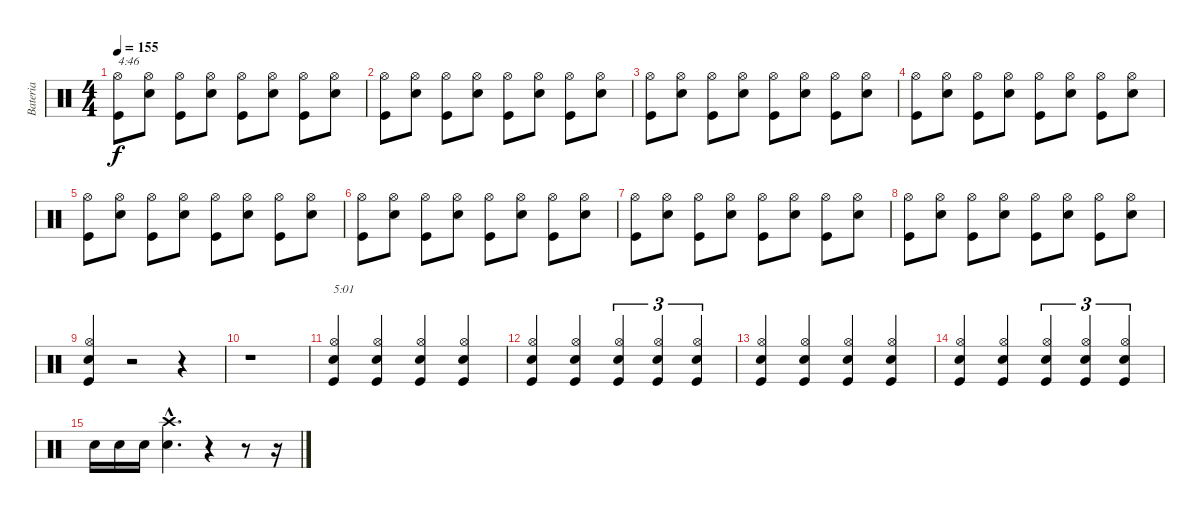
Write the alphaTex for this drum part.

\track ("Bateria" "Bateria") {instrument percussion}
\staff {score}
\articulation defaults
\ts (4 4)
\tempo 155
\clef neutral
\ks c
("Kick (hit)" "Hi-Hat (open)").8{txt "4:46" dy f} ("Snare (hit) 2" "Hi-Hat (open)").8 ("Kick (hit)" "Hi-Hat (open)").8 ("Snare (hit) 2" "Hi-Hat (open)").8 ("Kick (hit)" "Hi-Hat (open)").8 ("Snare (hit) 2" "Hi-Hat (open)").8 ("Kick (hit)" "Hi-Hat (open)").8 ("Snare (hit) 2" "Hi-Hat (open)").8 |
("Kick (hit)" "Hi-Hat (open)").8 ("Snare (hit) 2" "Hi-Hat (open)").8 ("Kick (hit)" "Hi-Hat (open)").8 ("Snare (hit) 2" "Hi-Hat (open)").8 ("Kick (hit)" "Hi-Hat (open)").8 ("Snare (hit) 2" "Hi-Hat (open)").8 ("Kick (hit)" "Hi-Hat (open)").8 ("Snare (hit) 2" "Hi-Hat (open)").8 |
("Kick (hit)" "Hi-Hat (open)").8 ("Snare (hit) 2" "Hi-Hat (open)").8 ("Kick (hit)" "Hi-Hat (open)").8 ("Snare (hit) 2" "Hi-Hat (open)").8 ("Kick (hit)" "Hi-Hat (open)").8 ("Snare (hit) 2" "Hi-Hat (open)").8 ("Kick (hit)" "Hi-Hat (open)").8 ("Snare (hit) 2" "Hi-Hat (open)").8 |
("Kick (hit)" "Hi-Hat (open)").8 ("Snare (hit) 2" "Hi-Hat (open)").8 ("Kick (hit)" "Hi-Hat (open)").8 ("Snare (hit) 2" "Hi-Hat (open)").8 ("Kick (hit)" "Hi-Hat (open)").8 ("Snare (hit) 2" "Hi-Hat (open)").8 ("Kick (hit)" "Hi-Hat (open)").8 ("Snare (hit) 2" "Hi-Hat (open)").8 |
("Kick (hit)" "Hi-Hat (open)").8 ("Snare (hit) 2" "Hi-Hat (open)").8 ("Kick (hit)" "Hi-Hat (open)").8 ("Snare (hit) 2" "Hi-Hat (open)").8 ("Kick (hit)" "Hi-Hat (open)").8 ("Snare (hit) 2" "Hi-Hat (open)").8 ("Kick (hit)" "Hi-Hat (open)").8 ("Snare (hit) 2" "Hi-Hat (open)").8 |
("Kick (hit)" "Hi-Hat (open)").8 ("Snare (hit) 2" "Hi-Hat (open)").8 ("Kick (hit)" "Hi-Hat (open)").8 ("Snare (hit) 2" "Hi-Hat (open)").8 ("Kick (hit)" "Hi-Hat (open)").8 ("Snare (hit) 2" "Hi-Hat (open)").8 ("Kick (hit)" "Hi-Hat (open)").8 ("Snare (hit) 2" "Hi-Hat (open)").8 |
("Kick (hit)" "Hi-Hat (open)").8 ("Snare (hit) 2" "Hi-Hat (open)").8 ("Kick (hit)" "Hi-Hat (open)").8 ("Snare (hit) 2" "Hi-Hat (open)").8 ("Kick (hit)" "Hi-Hat (open)").8 ("Snare (hit) 2" "Hi-Hat (open)").8 ("Kick (hit)" "Hi-Hat (open)").8 ("Snare (hit) 2" "Hi-Hat (open)").8 |
("Kick (hit)" "Hi-Hat (open)").8 ("Snare (hit) 2" "Hi-Hat (open)").8 ("Kick (hit)" "Hi-Hat (open)").8 ("Snare (hit) 2" "Hi-Hat (open)").8 ("Kick (hit)" "Hi-Hat (open)").8 ("Snare (hit) 2" "Hi-Hat (open)").8 ("Kick (hit)" "Hi-Hat (open)").8 ("Snare (hit) 2" "Hi-Hat (open)").8 |
("Kick (hit)" "Snare (hit) 2" "Hi-Hat (open)").4 r.2 r.4 |
r.1 |
("Kick (hit)" "Snare (hit) 2" "Hi-Hat (open)").4{txt "5:01"} ("Kick (hit)" "Snare (hit) 2" "Hi-Hat (open)").4 ("Kick (hit)" "Snare (hit) 2" "Hi-Hat (open)").4 ("Kick (hit)" "Snare (hit) 2" "Hi-Hat (open)").4 |
("Kick (hit)" "Snare (hit) 2" "Hi-Hat (open)").4 ("Kick (hit)" "Snare (hit) 2" "Hi-Hat (open)").4 ("Kick (hit)" "Snare (hit) 2" "Hi-Hat (open)").4{tu (3 2)} ("Kick (hit)" "Snare (hit) 2" "Hi-Hat (open)").4{tu (3 2)} ("Kick (hit)" "Snare (hit) 2" "Hi-Hat (open)").4{tu (3 2)} |
("Kick (hit)" "Snare (hit) 2" "Hi-Hat (open)").4 ("Kick (hit)" "Snare (hit) 2" "Hi-Hat (open)").4 ("Kick (hit)" "Snare (hit) 2" "Hi-Hat (open)").4 ("Kick (hit)" "Snare (hit) 2" "Hi-Hat (open)").4 |
("Kick (hit)" "Snare (hit) 2" "Hi-Hat (open)").4 ("Kick (hit)" "Snare (hit) 2" "Hi-Hat (open)").4 ("Kick (hit)" "Snare (hit) 2" "Hi-Hat (open)").4{tu (3 2)} ("Kick (hit)" "Snare (hit) 2" "Hi-Hat (open)").4{tu (3 2)} ("Kick (hit)" "Snare (hit) 2" "Hi-Hat (open)").4{tu (3 2)} |
"Snare (hit) 2".16 "Snare (hit) 2".16 "Snare (hit) 2".16 ("Snare (hit) 2"{hac} "Crash high (hit)"{hac}).4{d} r.4 r.8 r.16
